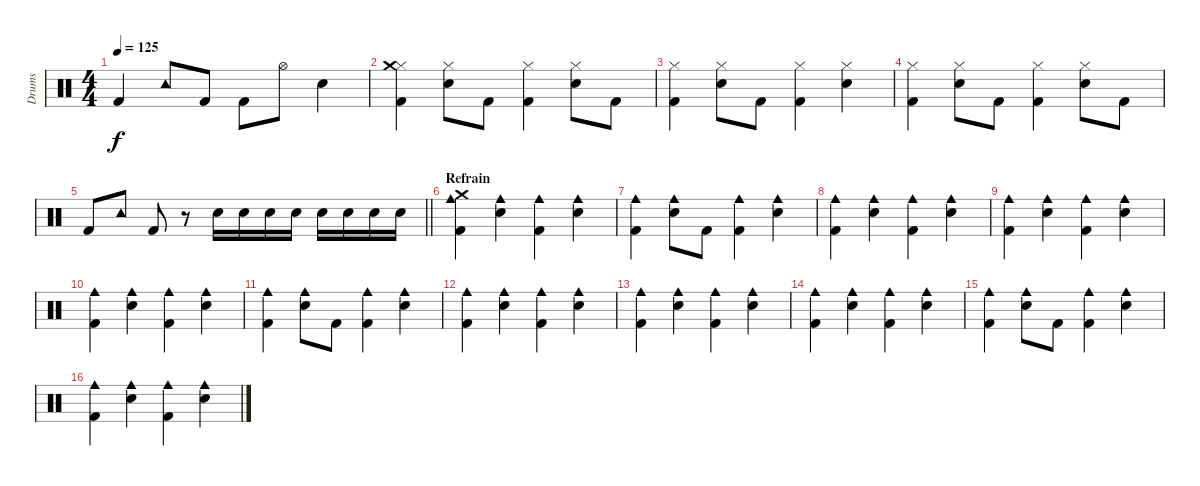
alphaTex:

\track ("Drums" "Drums") {instrument percussion}
\staff {score}
\articulation defaults
\ts (4 4)
\tempo 125
\clef neutral
\ks c "Kick (hit) 2".4{dy f} "Tambourine (hit)".8 "Kick (hit) 2".8 "Kick (hit) 2".8 "Hi-Hat (open)".8 "Snare (hit) 2".4
|
("Hi-Hat (closed)" "Crash medium (hit)" "Kick (hit) 2").4 ("Hi-Hat (closed)" "Snare (hit) 2").8 "Kick (hit) 2".8 ("Hi-Hat (closed)" "Kick (hit) 2").4 ("Hi-Hat (closed)" "Snare (hit) 2").8 "Kick (hit) 2".8 |
("Hi-Hat (closed)" "Kick (hit) 2").4 ("Hi-Hat (closed)" "Snare (hit) 2").8 "Kick (hit) 2".8 ("Hi-Hat (closed)" "Kick (hit) 2").4 ("Hi-Hat (closed)" "Snare (hit) 2").4 |
("Hi-Hat (closed)" "Kick (hit) 2").4 ("Hi-Hat (closed)" "Snare (hit) 2").8 "Kick (hit) 2".8 ("Hi-Hat (closed)" "Kick (hit) 2").4 ("Hi-Hat (closed)" "Snare (hit) 2").8 "Kick (hit) 2".8 |
\barLineRight lightlight "Kick (hit) 2".8 "Tambourine (hit)".8 "Kick (hit) 2".8
r.8 "Snare (hit) 2".16 "Snare (hit) 2".16 "Snare (hit) 2".16 "Snare (hit) 2".16 "Snare (hit) 2".16 "Snare (hit) 2".16 "Snare (hit) 2".16 "Snare (hit) 2".16 |
\section ("" "Refrain")
("Cowbell medium (hit)" "Crash medium (hit)" "Kick (hit) 2").4 ("Cowbell medium (hit)" "Snare (hit) 2").4 ("Cowbell medium (hit)" "Kick (hit) 2").4 ("Cowbell medium (hit)" "Snare (hit) 2").4 |
("Cowbell medium (hit)" "Kick (hit) 2").4 ("Cowbell medium (hit)" "Snare (hit) 2").8 "Kick (hit) 2".8 ("Cowbell medium (hit)" "Kick (hit) 2").4 ("Cowbell medium (hit)" "Snare (hit) 2").4 |
("Cowbell medium (hit)" "Kick (hit) 2").4 ("Cowbell medium (hit)" "Snare (hit) 2").4 ("Cowbell medium (hit)" "Kick (hit) 2").4 ("Cowbell medium (hit)" "Snare (hit) 2").4 |
("Cowbell medium (hit)" "Kick (hit) 2").4 ("Cowbell medium (hit)" "Snare (hit) 2").4 ("Cowbell medium (hit)" "Kick (hit) 2").4 ("Cowbell medium (hit)" "Snare (hit) 2").4 |
("Cowbell medium (hit)" "Kick (hit) 2").4 ("Cowbell medium (hit)" "Snare (hit) 2").4 ("Cowbell medium (hit)" "Kick (hit) 2").4 ("Cowbell medium (hit)" "Snare (hit) 2").4 |
("Cowbell medium (hit)" "Kick (hit) 2").4 ("Cowbell medium (hit)" "Snare (hit) 2").8 "Kick (hit) 2".8 ("Cowbell medium (hit)" "Kick (hit) 2").4 ("Cowbell medium (hit)" "Snare (hit) 2").4 |
("Cowbell medium (hit)" "Kick (hit) 2").4 ("Cowbell medium (hit)" "Snare (hit) 2").4 ("Cowbell medium (hit)" "Kick (hit) 2").4 ("Cowbell medium (hit)" "Snare (hit) 2").4 |
("Cowbell medium (hit)" "Kick (hit) 2").4 ("Cowbell medium (hit)" "Snare (hit) 2").4 ("Cowbell medium (hit)" "Kick (hit) 2").4 ("Cowbell medium (hit)" "Snare (hit) 2").4 |
("Cowbell medium (hit)" "Kick (hit) 2").4 ("Cowbell medium (hit)" "Snare (hit) 2").4 ("Cowbell medium (hit)" "Kick (hit) 2").4 ("Cowbell medium (hit)" "Snare (hit) 2").4 |
("Cowbell medium (hit)" "Kick (hit) 2").4 ("Cowbell medium (hit)" "Snare (hit) 2").8 "Kick (hit) 2".8 ("Cowbell medium (hit)" "Kick (hit) 2").4 ("Cowbell medium (hit)" "Snare (hit) 2").4 |
("Cowbell medium (hit)" "Kick (hit) 2").4 ("Cowbell medium (hit)" "Snare (hit) 2").4 ("Cowbell medium (hit)" "Kick (hit) 2").4 ("Cowbell medium (hit)" "Snare (hit) 2").4
